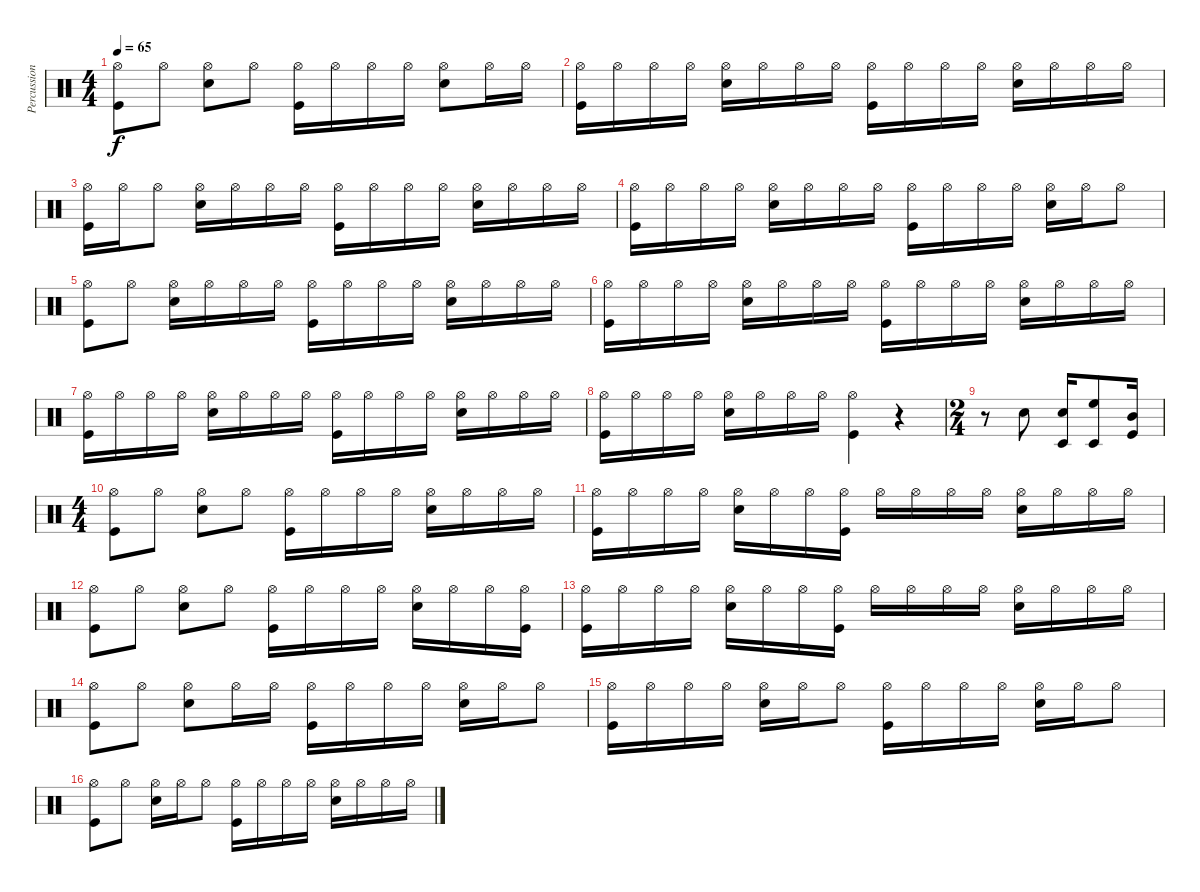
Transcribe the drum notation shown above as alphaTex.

\track ("Percussion" "Percussion") {instrument percussion}
\staff {score}
\articulation defaults
\ts (4 4)
\tempo 65
\clef neutral
\ks c
("Hi-Hat (open)" "Kick (hit)").8{dy f} "Hi-Hat (open)".8 ("Hi-Hat (open)" "Snare (hit) 2").8 "Hi-Hat (open)".8 ("Hi-Hat (open)" "Kick (hit)").16 "Hi-Hat (open)".16 "Hi-Hat (open)".16 "Hi-Hat (open)".16 ("Hi-Hat (open)" "Snare (hit) 2").8 "Hi-Hat (open)".16 "Hi-Hat (open)".16 |
("Hi-Hat (open)" "Kick (hit)").16 "Hi-Hat (open)".16 "Hi-Hat (open)".16 "Hi-Hat (open)".16 ("Hi-Hat (open)" "Snare (hit) 2").16 "Hi-Hat (open)".16 "Hi-Hat (open)".16 "Hi-Hat (open)".16 ("Hi-Hat (open)" "Kick (hit)").16 "Hi-Hat (open)".16 "Hi-Hat (open)".16 "Hi-Hat (open)".16 ("Hi-Hat (open)" "Snare (hit) 2").16 "Hi-Hat (open)".16 "Hi-Hat (open)".16 "Hi-Hat (open)".16 |
("Hi-Hat (open)" "Kick (hit)").16 "Hi-Hat (open)".16 "Hi-Hat (open)".8 ("Hi-Hat (open)" "Snare (hit) 2").16 "Hi-Hat (open)".16 "Hi-Hat (open)".16 "Hi-Hat (open)".16 ("Hi-Hat (open)" "Kick (hit)").16 "Hi-Hat (open)".16 "Hi-Hat (open)".16 "Hi-Hat (open)".16 ("Hi-Hat (open)" "Snare (hit) 2").16 "Hi-Hat (open)".16 "Hi-Hat (open)".16 "Hi-Hat (open)".16 |
("Hi-Hat (open)" "Kick (hit)").16 "Hi-Hat (open)".16 "Hi-Hat (open)".16 "Hi-Hat (open)".16 ("Hi-Hat (open)" "Snare (hit) 2").16 "Hi-Hat (open)".16 "Hi-Hat (open)".16 "Hi-Hat (open)".16 ("Hi-Hat (open)" "Kick (hit)").16 "Hi-Hat (open)".16 "Hi-Hat (open)".16 "Hi-Hat (open)".16 ("Hi-Hat (open)" "Snare (hit) 2").16 "Hi-Hat (open)".16 "Hi-Hat (open)".8 |
("Hi-Hat (open)" "Kick (hit)").8 "Hi-Hat (open)".8 ("Hi-Hat (open)" "Snare (hit) 2").16 "Hi-Hat (open)".16 "Hi-Hat (open)".16 "Hi-Hat (open)".16 ("Hi-Hat (open)" "Kick (hit)").16 "Hi-Hat (open)".16 "Hi-Hat (open)".16 "Hi-Hat (open)".16 ("Hi-Hat (open)" "Snare (hit) 2").16 "Hi-Hat (open)".16 "Hi-Hat (open)".16 "Hi-Hat (open)".16 |
("Hi-Hat (open)" "Kick (hit)").16 "Hi-Hat (open)".16 "Hi-Hat (open)".16 "Hi-Hat (open)".16 ("Hi-Hat (open)" "Snare (hit) 2").16 "Hi-Hat (open)".16 "Hi-Hat (open)".16 "Hi-Hat (open)".16 ("Hi-Hat (open)" "Kick (hit)").16 "Hi-Hat (open)".16 "Hi-Hat (open)".16 "Hi-Hat (open)".16 ("Hi-Hat (open)" "Snare (hit) 2").16 "Hi-Hat (open)".16 "Hi-Hat (open)".16 "Hi-Hat (open)".16 |
("Hi-Hat (open)" "Kick (hit)").16 "Hi-Hat (open)".16 "Hi-Hat (open)".16 "Hi-Hat (open)".16 ("Hi-Hat (open)" "Snare (hit) 2").16 "Hi-Hat (open)".16 "Hi-Hat (open)".16 "Hi-Hat (open)".16 ("Hi-Hat (open)" "Kick (hit)").16 "Hi-Hat (open)".16 "Hi-Hat (open)".16 "Hi-Hat (open)".16 ("Hi-Hat (open)" "Snare (hit) 2").16 "Hi-Hat (open)".16 "Hi-Hat (open)".16 "Hi-Hat (open)".16 |
("Hi-Hat (open)" "Kick (hit)").16 "Hi-Hat (open)".16 "Hi-Hat (open)".16 "Hi-Hat (open)".16 ("Hi-Hat (open)" "Snare (hit) 2").16 "Hi-Hat (open)".16 "Hi-Hat (open)".16 "Hi-Hat (open)".16 ("Hi-Hat (open)" "Kick (hit)").4 r.4 |
\ts (2 4)
r.8 "Snare (hit) 2".8 ("Timbale low (hit)" "Snare (hit) 2").16 ("Timbale low (hit)" "High Floor Tom (hit)").8 ("Mid Tom (hit)" "Kick (hit)").16 |
\ts (4 4)
("Hi-Hat (open)" "Kick (hit)").8 "Hi-Hat (open)".8 ("Hi-Hat (open)" "Snare (hit) 2").8 "Hi-Hat (open)".8 ("Hi-Hat (open)" "Kick (hit)").16 "Hi-Hat (open)".16 "Hi-Hat (open)".16 "Hi-Hat (open)".16 ("Hi-Hat (open)" "Snare (hit) 2").16 "Hi-Hat (open)".16 "Hi-Hat (open)".16 "Hi-Hat (open)".16 |
("Hi-Hat (open)" "Kick (hit)").16 "Hi-Hat (open)".16 "Hi-Hat (open)".16 "Hi-Hat (open)".16 ("Hi-Hat (open)" "Snare (hit) 2").16 "Hi-Hat (open)".16 "Hi-Hat (open)".16 ("Hi-Hat (open)" "Kick (hit)").16 "Hi-Hat (open)".16 "Hi-Hat (open)".16 "Hi-Hat (open)".16 "Hi-Hat (open)".16 ("Hi-Hat (open)" "Snare (hit) 2").16 "Hi-Hat (open)".16 "Hi-Hat (open)".16 "Hi-Hat (open)".16 |
("Hi-Hat (open)" "Kick (hit)").8 "Hi-Hat (open)".8 ("Hi-Hat (open)" "Snare (hit) 2").8 "Hi-Hat (open)".8 ("Hi-Hat (open)" "Kick (hit)").16 "Hi-Hat (open)".16 "Hi-Hat (open)".16 "Hi-Hat (open)".16 ("Hi-Hat (open)" "Snare (hit) 2").16 "Hi-Hat (open)".16 "Hi-Hat (open)".16 ("Hi-Hat (open)" "Kick (hit)").16 |
("Hi-Hat (open)" "Kick (hit)").16 "Hi-Hat (open)".16 "Hi-Hat (open)".16 "Hi-Hat (open)".16 ("Hi-Hat (open)" "Snare (hit) 2").16 "Hi-Hat (open)".16 "Hi-Hat (open)".16 ("Hi-Hat (open)" "Kick (hit)").16 "Hi-Hat (open)".16 "Hi-Hat (open)".16 "Hi-Hat (open)".16 "Hi-Hat (open)".16 ("Hi-Hat (open)" "Snare (hit) 2").16 "Hi-Hat (open)".16 "Hi-Hat (open)".16 "Hi-Hat (open)".16 |
("Hi-Hat (open)" "Kick (hit)").8 "Hi-Hat (open)".8 ("Hi-Hat (open)" "Snare (hit) 2").8 "Hi-Hat (open)".16 "Hi-Hat (open)".16 ("Hi-Hat (open)" "Kick (hit)").16 "Hi-Hat (open)".16 "Hi-Hat (open)".16 "Hi-Hat (open)".16 ("Hi-Hat (open)" "Snare (hit) 2").16 "Hi-Hat (open)".16 "Hi-Hat (open)".8 |
("Hi-Hat (open)" "Kick (hit)").16 "Hi-Hat (open)".16 "Hi-Hat (open)".16 "Hi-Hat (open)".16 ("Hi-Hat (open)" "Snare (hit) 2").16 "Hi-Hat (open)".16 "Hi-Hat (open)".8 ("Hi-Hat (open)" "Kick (hit)").16 "Hi-Hat (open)".16 "Hi-Hat (open)".16 "Hi-Hat (open)".16 ("Hi-Hat (open)" "Snare (hit) 2").16 "Hi-Hat (open)".16 "Hi-Hat (open)".8 |
("Hi-Hat (open)" "Kick (hit)").8 "Hi-Hat (open)".8 ("Hi-Hat (open)" "Snare (hit) 2").16 "Hi-Hat (open)".16 "Hi-Hat (open)".8 ("Hi-Hat (open)" "Kick (hit)").16 "Hi-Hat (open)".16 "Hi-Hat (open)".16 "Hi-Hat (open)".16 ("Hi-Hat (open)" "Snare (hit) 2").16 "Hi-Hat (open)".16 "Hi-Hat (open)".16 "Hi-Hat (open)".16
